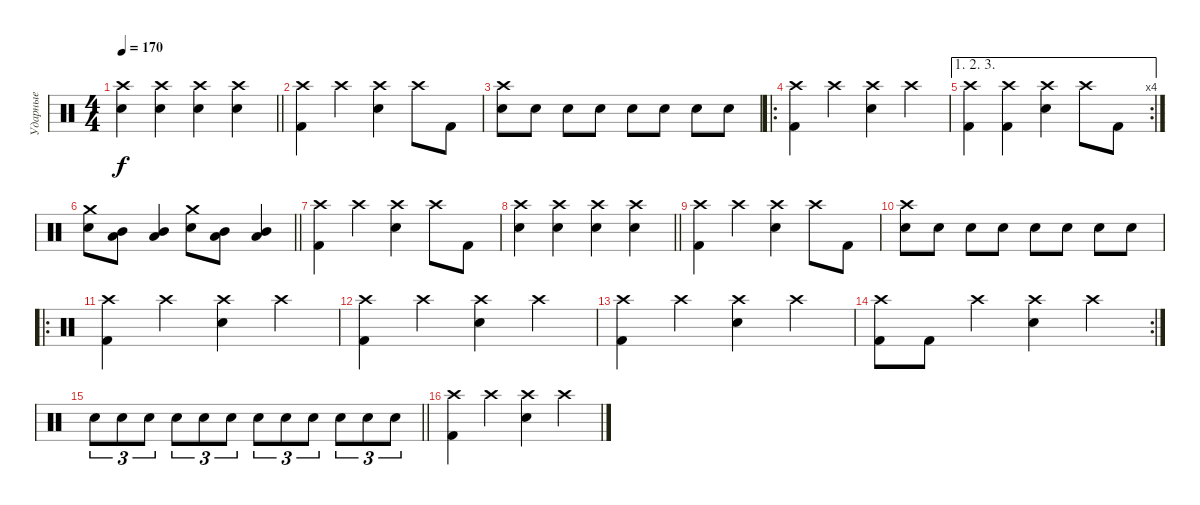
\track ("Ударные" "Ударные") {instrument percussion}
\staff {score}
\articulation defaults
\ts (4 4)
\tempo 170
\clef neutral
\barLineRight lightlight
\ks c
("Crash high (hit)" "Snare (hit) 2").4{dy f} ("Crash high (hit)" "Snare (hit) 2").4 ("Crash high (hit)" "Snare (hit) 2").4 ("Crash high (hit)" "Snare (hit) 2").4 |
("Crash high (hit)" "Kick (hit) 2").4 "Crash high (hit)".4 ("Crash high (hit)" "Snare (hit) 2").4 "Crash high (hit)".8 "Kick (hit) 2".8 |
("Crash high (hit)" "Snare (hit) 2").8 "Snare (hit) 2".8 "Snare (hit) 2".8 "Snare (hit) 2".8 "Snare (hit) 2".8 "Snare (hit) 2".8 "Snare (hit) 2".8 "Snare (hit) 2".8 |
\ro
("Crash high (hit)" "Kick (hit) 2").4 "Crash high (hit)".4 ("Crash high (hit)" "Snare (hit) 2").4 "Crash high (hit)".4 |
\ae (1 2 3)
\rc 4
("Crash high (hit)" "Kick (hit) 2").4 ("Crash high (hit)" "Kick (hit) 2").4 ("Crash high (hit)" "Snare (hit) 2").4 "Crash high (hit)".8 "Kick (hit) 2".8 |
\barLineRight lightlight
("Crash medium (hit)" "Snare (hit) 2").8 ("Mid Tom (hit)" "Low Floor Tom (hit)").8 ("Mid Tom (hit)" "Low Floor Tom (hit)").4 ("Crash medium (hit)" "Snare (hit) 2").8 ("Mid Tom (hit)" "Low Floor Tom (hit)").8 ("Mid Tom (hit)" "Low Floor Tom (hit)").4 |
("Crash high (hit)" "Kick (hit) 2").4 "Crash high (hit)".4 ("Crash high (hit)" "Snare (hit) 2").4 "Crash high (hit)".8 "Kick (hit) 2".8 |
\barLineRight lightlight
("Crash high (hit)" "Snare (hit) 2").4 ("Crash high (hit)" "Snare (hit) 2").4 ("Crash high (hit)" "Snare (hit) 2").4 ("Crash high (hit)" "Snare (hit) 2").4 |
("Crash high (hit)" "Kick (hit) 2").4 "Crash high (hit)".4 ("Crash high (hit)" "Snare (hit) 2").4 "Crash high (hit)".8 "Kick (hit) 2".8 |
("Crash high (hit)" "Snare (hit) 2").8 "Snare (hit) 2".8 "Snare (hit) 2".8 "Snare (hit) 2".8 "Snare (hit) 2".8 "Snare (hit) 2".8 "Snare (hit) 2".8 "Snare (hit) 2".8 |
\ro
("Crash high (hit)" "Kick (hit) 2").4 "Crash high (hit)".4 ("Crash high (hit)" "Snare (hit) 2").4 "Crash high (hit)".4 |
("Crash high (hit)" "Kick (hit) 2").4 "Crash high (hit)".4 ("Crash high (hit)" "Snare (hit) 2").4 "Crash high (hit)".4 |
("Crash high (hit)" "Kick (hit) 2").4 "Crash high (hit)".4 ("Crash high (hit)" "Snare (hit) 2").4 "Crash high (hit)".4 |
\rc 2
("Crash high (hit)" "Kick (hit) 2").8 "Kick (hit) 2".8 "Crash high (hit)".4 ("Crash high (hit)" "Snare (hit) 2").4 "Crash high (hit)".4 |
\barLineRight lightlight "Snare (hit) 2".8{tu (3 2)} "Snare (hit) 2".8{tu (3 2)} "Snare (hit) 2".8{tu (3 2)} "Snare (hit) 2".8{tu (3 2)} "Snare (hit) 2".8{tu (3 2)} "Snare (hit) 2".8{tu (3 2)} "Snare (hit) 2".8{tu (3 2)} "Snare (hit) 2".8{tu (3 2)} "Snare (hit) 2".8{tu (3 2)} "Snare (hit) 2".8{tu (3 2)} "Snare (hit) 2".8{tu (3 2)} "Snare (hit) 2".8{tu (3 2)}
|
("Crash high (hit)" "Kick (hit) 2").4 "Crash high (hit)".4 ("Crash high (hit)" "Snare (hit) 2").4 "Crash high (hit)".4
